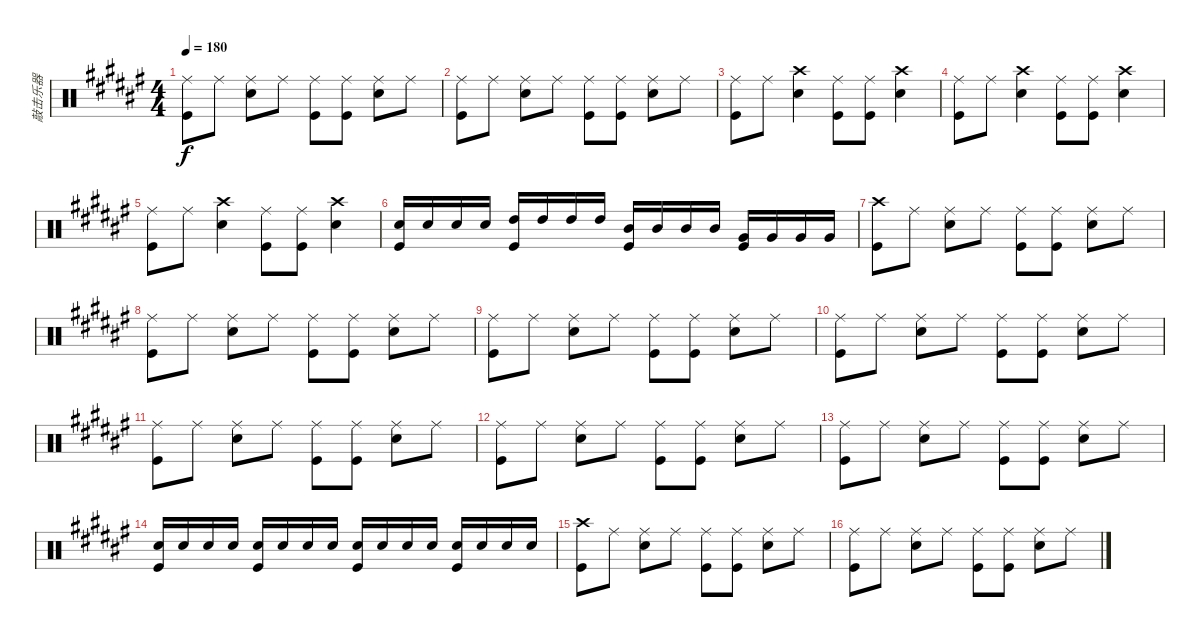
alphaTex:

\track ("敲击乐器" "敲击乐器") {instrument percussion}
\staff {score}
\articulation defaults
\ts (4 4)
\tempo 180
\clef neutral
\ks f#
("Ride (middle)" "Kick (hit)").8{dy f} "Ride (middle)".8 ("Ride (middle)" "Electric Snare (hit)").8 "Ride (middle)".8 ("Ride (middle)" "Kick (hit)").8 ("Ride (middle)" "Kick (hit)").8 ("Ride (middle)" "Electric Snare (hit)").8 "Ride (middle)".8 |
("Ride (middle)" "Kick (hit)").8 "Ride (middle)".8 ("Ride (middle)" "Electric Snare (hit)").8 "Ride (middle)".8 ("Ride (middle)" "Kick (hit)").8 ("Ride (middle)" "Kick (hit)").8 ("Ride (middle)" "Electric Snare (hit)").8 "Ride (middle)".8 |
("Ride (middle)" "Kick (hit)").8 "Ride (middle)".8 ("Crash high (hit)" "Electric Snare (hit)").4 ("Ride (middle)" "Kick (hit)").8 ("Ride (middle)" "Kick (hit)").8 ("Crash high (hit)" "Electric Snare (hit)").4 |
("Ride (middle)" "Kick (hit)").8 "Ride (middle)".8 ("Crash high (hit)" "Electric Snare (hit)").4 ("Ride (middle)" "Kick (hit)").8 ("Ride (middle)" "Kick (hit)").8 ("Crash high (hit)" "Electric Snare (hit)").4 |
("Ride (middle)" "Kick (hit)").8 "Ride (middle)".8 ("Crash high (hit)" "Electric Snare (hit)").4 ("Ride (middle)" "Kick (hit)").8 ("Ride (middle)" "Kick (hit)").8 ("Crash high (hit)" "Electric Snare (hit)").4 |
("Electric Snare (hit)" "Kick (hit)").16 "Electric Snare (hit)".16 "Electric Snare (hit)".16 "Electric Snare (hit)".16 ("High Tom (hit)" "Kick (hit)").16 "High Tom (hit)".16 "High Tom (hit)".16 "High Tom (hit)".16 ("Mid Tom (hit)" "Kick (hit)").16 "Mid Tom (hit)".16 "Mid Tom (hit)".16 "Mid Tom (hit)".16 ("Very Low Tom (hit)" "Kick (hit)").16 "Very Low Tom (hit)".16 "Very Low Tom (hit)".16 "Very Low Tom (hit)".16 |
("Crash high (hit)" "Kick (hit)").8 "Ride (middle)".8 ("Ride (middle)" "Electric Snare (hit)").8 "Ride (middle)".8 ("Ride (middle)" "Kick (hit)").8 ("Ride (middle)" "Kick (hit)").8 ("Ride (middle)" "Electric Snare (hit)").8 "Ride (middle)".8 |
("Ride (middle)" "Kick (hit)").8 "Ride (middle)".8 ("Ride (middle)" "Electric Snare (hit)").8 "Ride (middle)".8 ("Ride (middle)" "Kick (hit)").8 ("Ride (middle)" "Kick (hit)").8 ("Ride (middle)" "Electric Snare (hit)").8 "Ride (middle)".8 |
("Ride (middle)" "Kick (hit)").8 "Ride (middle)".8 ("Ride (middle)" "Electric Snare (hit)").8 "Ride (middle)".8 ("Ride (middle)" "Kick (hit)").8 ("Ride (middle)" "Kick (hit)").8 ("Ride (middle)" "Electric Snare (hit)").8 "Ride (middle)".8 |
("Ride (middle)" "Kick (hit)").8 "Ride (middle)".8 ("Ride (middle)" "Electric Snare (hit)").8 "Ride (middle)".8 ("Ride (middle)" "Kick (hit)").8 ("Ride (middle)" "Kick (hit)").8 ("Ride (middle)" "Electric Snare (hit)").8 "Ride (middle)".8 |
("Ride (middle)" "Kick (hit)").8 "Ride (middle)".8 ("Ride (middle)" "Electric Snare (hit)").8 "Ride (middle)".8 ("Ride (middle)" "Kick (hit)").8 ("Ride (middle)" "Kick (hit)").8 ("Ride (middle)" "Electric Snare (hit)").8 "Ride (middle)".8 |
("Ride (middle)" "Kick (hit)").8 "Ride (middle)".8 ("Ride (middle)" "Electric Snare (hit)").8 "Ride (middle)".8 ("Ride (middle)" "Kick (hit)").8 ("Ride (middle)" "Kick (hit)").8 ("Ride (middle)" "Electric Snare (hit)").8 "Ride (middle)".8 |
("Ride (middle)" "Kick (hit)").8 "Ride (middle)".8 ("Ride (middle)" "Electric Snare (hit)").8 "Ride (middle)".8 ("Ride (middle)" "Kick (hit)").8 ("Ride (middle)" "Kick (hit)").8 ("Ride (middle)" "Electric Snare (hit)").8 "Ride (middle)".8 |
("Electric Snare (hit)" "Kick (hit)").16 "Electric Snare (hit)".16 "Electric Snare (hit)".16 "Electric Snare (hit)".16 ("Electric Snare (hit)" "Kick (hit)").16 "Electric Snare (hit)".16 "Electric Snare (hit)".16 "Electric Snare (hit)".16 ("Electric Snare (hit)" "Kick (hit)").16 "Electric Snare (hit)".16 "Electric Snare (hit)".16 "Electric Snare (hit)".16 ("Electric Snare (hit)" "Kick (hit)").16 "Electric Snare (hit)".16 "Electric Snare (hit)".16 "Electric Snare (hit)".16 |
("Crash high (hit)" "Kick (hit)").8 "Ride (middle)".8 ("Ride (middle)" "Electric Snare (hit)").8 "Ride (middle)".8 ("Ride (middle)" "Kick (hit)").8 ("Ride (middle)" "Kick (hit)").8 ("Ride (middle)" "Electric Snare (hit)").8 "Ride (middle)".8 |
("Ride (middle)" "Kick (hit)").8 "Ride (middle)".8 ("Ride (middle)" "Electric Snare (hit)").8 "Ride (middle)".8 ("Ride (middle)" "Kick (hit)").8 ("Ride (middle)" "Kick (hit)").8 ("Ride (middle)" "Electric Snare (hit)").8 "Ride (middle)".8
